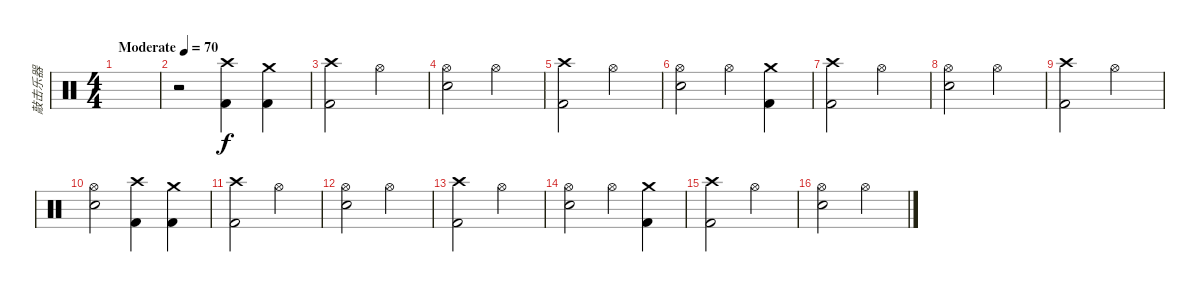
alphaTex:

\track ("敲击乐器" "敲击乐器") {instrument percussion}
\staff {score}
\articulation defaults
\ts (4 4)
\tempo (70 "Moderate")
\clef neutral
\ks c
|
r.2 ("Kick (hit) 2" "Crash high (hit)").4 ("Kick (hit) 2" "Crash medium (hit)").4 |
("Kick (hit) 2" "Crash high (hit)").2 "Hi-Hat (open)".2 |
("Hi-Hat (open)" "Snare (hit) 2").2 "Hi-Hat (open)".2 |
("Kick (hit) 2" "Crash high (hit)").2 "Hi-Hat (open)".2 |
("Hi-Hat (open)" "Snare (hit) 2").2 "Hi-Hat (open)".4 ("Kick (hit) 2" "Crash medium (hit)").4 |
("Kick (hit) 2" "Crash high (hit)").2 "Hi-Hat (open)".2 |
("Hi-Hat (open)" "Snare (hit) 2").2 "Hi-Hat (open)".2 |
("Kick (hit) 2" "Crash high (hit)").2 "Hi-Hat (open)".2 |
("Hi-Hat (open)" "Snare (hit) 2").2 ("Kick (hit) 2" "Crash high (hit)").4 ("Kick (hit) 2" "Crash medium (hit)").4 |
("Kick (hit) 2" "Crash high (hit)").2 "Hi-Hat (open)".2 |
("Hi-Hat (open)" "Snare (hit) 2").2 "Hi-Hat (open)".2 |
("Kick (hit) 2" "Crash high (hit)").2 "Hi-Hat (open)".2 |
("Hi-Hat (open)" "Snare (hit) 2").2 "Hi-Hat (open)".4 ("Kick (hit) 2" "Crash medium (hit)").4 |
("Kick (hit) 2" "Crash high (hit)").2 "Hi-Hat (open)".2 |
("Hi-Hat (open)" "Snare (hit) 2").2 "Hi-Hat (open)".2
